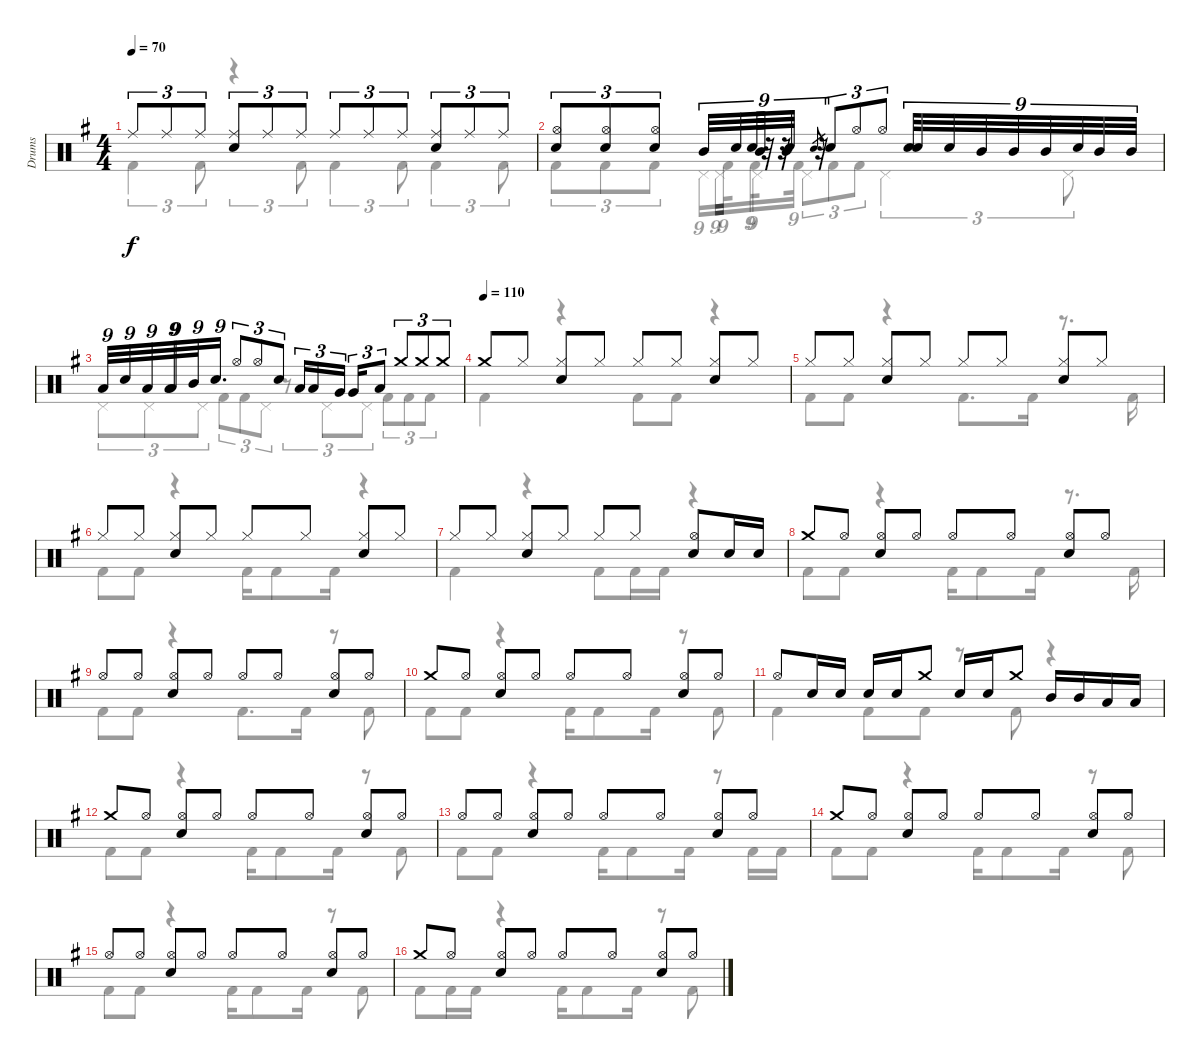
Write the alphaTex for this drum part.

\track ("Drums" "Drums") {instrument percussion}
\staff {score}
\articulation defaults
\voice
\ts (4 4)
\tempo 70
\clef neutral
\ks g "Ride (middle)".8{tu (3 2) dy f} "Ride (middle)".8{tu (3 2)} "Ride (middle)".8{tu (3 2)}
("Ride (middle)" "Snare (hit) 2").8{tu (3 2)} "Ride (middle)".8{tu (3 2)} "Ride (middle)".8{tu (3 2)} "Ride (middle)".8{tu (3 2)} "Ride (middle)".8{tu (3 2)} "Ride (middle)".8{tu (3 2)} ("Ride (middle)" "Snare (hit) 2").8{tu (3 2)} "Ride (middle)".8{tu (3 2)} "Ride (middle)".8{tu (3 2)} |
("Hi-Hat (open)" "Snare (hit) 2").8{tu (3 2)} ("Hi-Hat (open)" "Snare (hit) 2").8{tu (3 2)} ("Hi-Hat (open)" "Snare (hit) 2").8{tu (3 2)} "Mid Tom (hit)".32{tu (9 8)} "Snare (hit) 2".32{tu (9 8)} r.32{tu (9 8)} "Mid Tom (hit)".32{tu (9 8)} "Snare (hit) 2".32{tu (9 8)} r.32{tu (9 8)} "Mid Tom (hit)".32{tu (9 8)} "Snare (hit) 2".32{tu (9 8)} r.32{tu (9 8)} "Snare (hit) 2".8{gr} "Snare (hit) 2".8{tu (3 2)} "Hi-Hat (open)".8{tu (3 2)} "Hi-Hat (open)".8{tu (3 2)} "Snare (hit) 2".32{tu (9 8)} "Snare (hit) 2".32{tu (9 8)} "Snare (hit) 2".32{tu (9 8)} "Mid Tom (hit)".32{tu (9 8)} "Mid Tom (hit)".32{tu (9 8)} "Mid Tom (hit)".32{tu (9 8)} "Snare (hit) 2".32{tu (9 8)} "Mid Tom (hit)".32{tu (9 8)} "Mid Tom (hit)".32{tu (9 8)} |
"Low Tom (hit)".32{tu (9 8)} "Snare (hit) 2".32{tu (9 8)} "Low Tom (hit)".32{tu (9 8)} "Low Tom (hit)".32{tu (9 8)} "Low Tom (hit)".32{tu (9 8)} "Mid Tom (hit)".32{tu (9 8)} "Snare (hit) 2".16{d tu (9 8)} "Hi-Hat (open)".8{tu (3 2)} "Hi-Hat (open)".8{tu (3 2)} "Snare (hit) 2".8{tu (3 2)} "Low Tom (hit)".16{tu (3 2)} "Low Tom (hit)".16{tu (3 2)} "Very Low Tom (hit)".16{tu (3 2) beam splitsecondary} "Very Low Tom (hit)".16{tu (3 2)} "Low Floor Tom (hit)".8{tu (3 2)} "Crash medium (hit)".8{tu (3 2)} "Crash medium (hit)".8{tu (3 2)} "Crash medium (hit)".8{tu (3 2)} |
\tempo (110)
"Crash medium (hit)".8 "Hi-Hat (closed)".8 ("Hi-Hat (closed)" "Snare (hit) 2").8 "Hi-Hat (closed)".8 "Hi-Hat (closed)".8 "Hi-Hat (closed)".8 ("Hi-Hat (closed)" "Snare (hit) 2").8 "Hi-Hat (closed)".8 |
"Hi-Hat (closed)".8 "Hi-Hat (closed)".8 ("Hi-Hat (closed)" "Snare (hit) 2").8 "Hi-Hat (closed)".8 "Hi-Hat (closed)".8 "Hi-Hat (closed)".8 ("Hi-Hat (closed)" "Snare (hit) 2").8 "Hi-Hat (closed)".8 |
"Hi-Hat (closed)".8 "Hi-Hat (closed)".8 ("Hi-Hat (closed)" "Snare (hit) 2").8 "Hi-Hat (closed)".8 "Hi-Hat (closed)".8 "Hi-Hat (closed)".8 ("Hi-Hat (closed)" "Snare (hit) 2").8 "Hi-Hat (closed)".8 |
"Hi-Hat (closed)".8 "Hi-Hat (closed)".8 ("Hi-Hat (closed)" "Snare (hit) 2").8 "Hi-Hat (closed)".8 "Hi-Hat (closed)".8 "Hi-Hat (closed)".8 ("Hi-Hat (open)" "Snare (hit) 2").8 "Snare (hit) 2".16 "Snare (hit) 2".16 |
"Crash medium (hit)".8 "Hi-Hat (open)".8 ("Hi-Hat (open)" "Snare (hit) 2").8 "Hi-Hat (open)".8 "Hi-Hat (open)".8 "Hi-Hat (open)".8 ("Hi-Hat (open)" "Snare (hit) 2").8 "Hi-Hat (open)".8 |
"Hi-Hat (open)".8 "Hi-Hat (open)".8 ("Hi-Hat (open)" "Snare (hit) 2").8 "Hi-Hat (open)".8 "Hi-Hat (open)".8 "Hi-Hat (open)".8 ("Hi-Hat (open)" "Snare (hit) 2").8 "Hi-Hat (open)".8 |
"Crash medium (hit)".8 "Hi-Hat (open)".8 ("Hi-Hat (open)" "Snare (hit) 2").8 "Hi-Hat (open)".8 "Hi-Hat (open)".8 "Hi-Hat (open)".8 ("Hi-Hat (open)" "Snare (hit) 2").8 "Hi-Hat (open)".8 |
"Hi-Hat (open)".8 "Snare (hit) 2".16 "Snare (hit) 2".16 "Snare (hit) 2".16 "Snare (hit) 2".16 "Crash medium (hit)".8 "Snare (hit) 2".16 "Snare (hit) 2".16 "Crash medium (hit)".8 "Mid Tom (hit)".16 "Mid Tom (hit)".16 "Low Tom (hit)".16 "Low Tom (hit)".16 |
"Crash medium (hit)".8 "Hi-Hat (open)".8 ("Hi-Hat (open)" "Snare (hit) 2").8 "Hi-Hat (open)".8 "Hi-Hat (open)".8 "Hi-Hat (open)".8 ("Hi-Hat (open)" "Snare (hit) 2").8 "Hi-Hat (open)".8 |
"Hi-Hat (open)".8 "Hi-Hat (open)".8 ("Hi-Hat (open)" "Snare (hit) 2").8 "Hi-Hat (open)".8 "Hi-Hat (open)".8 "Hi-Hat (open)".8 ("Hi-Hat (open)" "Snare (hit) 2").8 "Hi-Hat (open)".8 |
"Crash medium (hit)".8 "Hi-Hat (open)".8 ("Hi-Hat (open)" "Snare (hit) 2").8 "Hi-Hat (open)".8 "Hi-Hat (open)".8 "Hi-Hat (open)".8 ("Hi-Hat (open)" "Snare (hit) 2").8 "Hi-Hat (open)".8 |
"Hi-Hat (open)".8 "Hi-Hat (open)".8 ("Hi-Hat (open)" "Snare (hit) 2").8 "Hi-Hat (open)".8 "Hi-Hat (open)".8 "Hi-Hat (open)".8 ("Hi-Hat (open)" "Snare (hit) 2").8 "Hi-Hat (open)".8 |
"Crash medium (hit)".8 "Hi-Hat (open)".8 ("Hi-Hat (open)" "Snare (hit) 2").8 "Hi-Hat (open)".8 "Hi-Hat (open)".8 "Hi-Hat (open)".8 ("Hi-Hat (open)" "Snare (hit) 2").8 "Hi-Hat (open)".8
\voice
\clef neutral
\ottava regular
\simile none
\ks g "Kick (hit) 2".4{tu (3 2) dy f} "Kick (hit) 2".8{tu (3 2)}
r.4{tu (3 2)} "Kick (hit) 2".8{tu (3 2)} "Kick (hit) 2".4{tu (3 2)} "Kick (hit) 2".8{tu (3 2)} "Kick (hit) 2".4{tu (3 2)} "Kick (hit) 2".8{tu (3 2)} |
"Kick (hit) 2".8{tu (3 2)} "Kick (hit) 2".8{tu (3 2)} "Kick (hit) 2".8{tu (3 2)} "Pedal Hi-Hat (hit)".16{tu (9 8)} "Kick (hit) 2".32{tu (9 8)} "Pedal Hi-Hat (hit)".16{tu (9 8)} "Kick (hit) 2".32{tu (9 8)} "Pedal Hi-Hat (hit)".16{tu (9 8)} "Kick (hit) 2".32{tu (9 8)} "Pedal Hi-Hat (hit)".8{tu (3 2)} "Kick (hit) 2".8{tu (3 2)} "Kick (hit) 2".8{tu (3 2)} "Pedal Hi-Hat (hit)".4{tu (3 2)} "Pedal Hi-Hat (hit)".8{tu (3 2)} |
"Pedal Hi-Hat (hit)".8{tu (3 2)} "Pedal Hi-Hat (hit)".8{tu (3 2)} "Pedal Hi-Hat (hit)".8{tu (3 2)} "Kick (hit) 2".8{tu (3 2)} "Kick (hit) 2".8{tu (3 2)} "Pedal Hi-Hat (hit)".8{tu (3 2)} r.8{tu (3 2)} "Pedal Hi-Hat (hit)".8{tu (3 2)} "Pedal Hi-Hat (hit)".8{tu (3 2)} "Kick (hit) 2".8{tu (3 2)} "Kick (hit) 2".8{tu (3 2)} "Kick (hit) 2".8{tu (3 2)} |
"Kick (hit) 2".4 r.4 "Kick (hit) 2".8 "Kick (hit) 2".8 r.4 |
"Kick (hit) 2".8 "Kick (hit) 2".8 r.4 "Kick (hit) 2".8{d} "Kick (hit) 2".16 r.8{d} "Kick (hit) 2".16 |
"Kick (hit) 2".8 "Kick (hit) 2".8 r.4 "Kick (hit) 2".16 "Kick (hit) 2".8 "Kick (hit) 2".16 r.4 |
"Kick (hit) 2".4 r.4 "Kick (hit) 2".8 "Kick (hit) 2".16 "Kick (hit) 2".16 r.4 |
"Kick (hit) 2".8 "Kick (hit) 2".8 r.4 "Kick (hit) 2".16 "Kick (hit) 2".8 "Kick (hit) 2".16 r.8{d} "Kick (hit) 2".16 |
"Kick (hit) 2".8 "Kick (hit) 2".8 r.4 "Kick (hit) 2".8{d} "Kick (hit) 2".16 r.8 "Kick (hit) 2".8 |
"Kick (hit) 2".8 "Kick (hit) 2".8 r.4 "Kick (hit) 2".16 "Kick (hit) 2".8 "Kick (hit) 2".16 r.8 "Kick (hit) 2".8 |
"Kick (hit) 2".4 "Kick (hit) 2".8 "Kick (hit) 2".8 r.8 "Kick (hit) 2".8 r.4 |
"Kick (hit) 2".8 "Kick (hit) 2".8 r.4 "Kick (hit) 2".16 "Kick (hit) 2".8 "Kick (hit) 2".16 r.8 "Kick (hit) 2".8 |
"Kick (hit) 2".8 "Kick (hit) 2".8 r.4 "Kick (hit) 2".16 "Kick (hit) 2".8 "Kick (hit) 2".16 r.8 "Kick (hit) 2".16 "Kick (hit) 2".16 |
"Kick (hit) 2".8 "Kick (hit) 2".8 r.4 "Kick (hit) 2".16 "Kick (hit) 2".8 "Kick (hit) 2".16 r.8 "Kick (hit) 2".8 |
"Kick (hit) 2".8 "Kick (hit) 2".8 r.4 "Kick (hit) 2".16 "Kick (hit) 2".8 "Kick (hit) 2".16 r.8 "Kick (hit) 2".8 |
"Kick (hit) 2".8 "Kick (hit) 2".16 "Kick (hit) 2".16 r.4 "Kick (hit) 2".16 "Kick (hit) 2".8 "Kick (hit) 2".16 r.8 "Kick (hit) 2".8
